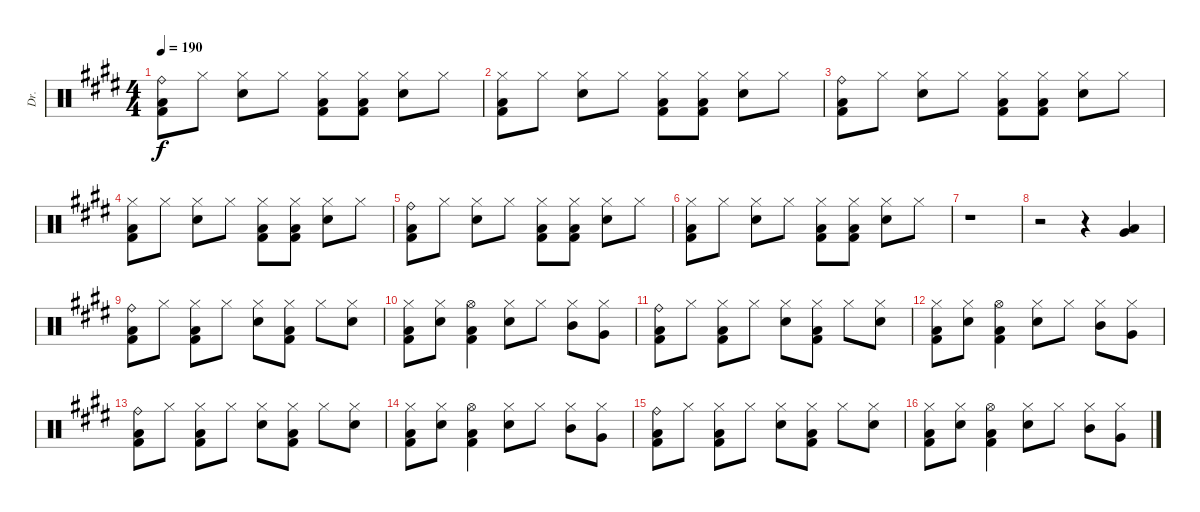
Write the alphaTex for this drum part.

\track ("Dr." "Dr.") {instrument percussion}
\staff {score}
\articulation defaults
\ts (4 4)
\tempo 190
\clef neutral
\ks e
("Ride (bell)" "Low Floor Tom (hit)" "Kick (hit) 2").8{dy f} "Hi-Hat (closed)".8 ("Electric Snare (hit)" "Hi-Hat (closed)").8 "Hi-Hat (closed)".8 ("Hi-Hat (closed)" "Low Floor Tom (hit)" "Kick (hit) 2").8 ("Hi-Hat (closed)" "Low Floor Tom (hit)" "Kick (hit) 2").8 ("Electric Snare (hit)" "Hi-Hat (closed)").8 "Hi-Hat (closed)".8 |
("Hi-Hat (closed)" "Low Floor Tom (hit)" "Kick (hit) 2").8 "Hi-Hat (closed)".8 ("Electric Snare (hit)" "Hi-Hat (closed)").8 "Hi-Hat (closed)".8 ("Hi-Hat (closed)" "Low Floor Tom (hit)" "Kick (hit) 2").8 ("Hi-Hat (closed)" "Low Floor Tom (hit)" "Kick (hit) 2").8 ("Electric Snare (hit)" "Hi-Hat (closed)").8 "Hi-Hat (closed)".8 |
("Ride (bell)" "Low Floor Tom (hit)" "Kick (hit) 2").8 "Hi-Hat (closed)".8 ("Electric Snare (hit)" "Hi-Hat (closed)").8 "Hi-Hat (closed)".8 ("Hi-Hat (closed)" "Low Floor Tom (hit)" "Kick (hit) 2").8 ("Hi-Hat (closed)" "Low Floor Tom (hit)" "Kick (hit) 2").8 ("Electric Snare (hit)" "Hi-Hat (closed)").8 "Hi-Hat (closed)".8 |
("Hi-Hat (closed)" "Low Floor Tom (hit)" "Kick (hit) 2").8 "Hi-Hat (closed)".8 ("Electric Snare (hit)" "Hi-Hat (closed)").8 "Hi-Hat (closed)".8 ("Hi-Hat (closed)" "Low Floor Tom (hit)" "Kick (hit) 2").8 ("Hi-Hat (closed)" "Low Floor Tom (hit)" "Kick (hit) 2").8 ("Electric Snare (hit)" "Hi-Hat (closed)").8 "Hi-Hat (closed)".8 |
("Ride (bell)" "Low Floor Tom (hit)" "Kick (hit) 2").8 "Hi-Hat (closed)".8 ("Electric Snare (hit)" "Hi-Hat (closed)").8 "Hi-Hat (closed)".8 ("Hi-Hat (closed)" "Low Floor Tom (hit)" "Kick (hit) 2").8 ("Hi-Hat (closed)" "Low Floor Tom (hit)" "Kick (hit) 2").8 ("Electric Snare (hit)" "Hi-Hat (closed)").8 "Hi-Hat (closed)".8 |
("Hi-Hat (closed)" "Low Floor Tom (hit)" "Kick (hit) 2").8 "Hi-Hat (closed)".8 ("Electric Snare (hit)" "Hi-Hat (closed)").8 "Hi-Hat (closed)".8 ("Hi-Hat (closed)" "Low Floor Tom (hit)" "Kick (hit) 2").8 ("Hi-Hat (closed)" "Low Floor Tom (hit)" "Kick (hit) 2").8 ("Electric Snare (hit)" "Hi-Hat (closed)").8 "Hi-Hat (closed)".8 |
r.1 |
r.2 r.4 ("Very Low Tom (hit)" "Low Floor Tom (hit)").4 |
("Ride (bell)" "Low Floor Tom (hit)" "Kick (hit) 2").8 "Hi-Hat (closed)".8 ("Hi-Hat (closed)" "Low Floor Tom (hit)" "Kick (hit) 2").8 "Hi-Hat (closed)".8 ("Electric Snare (hit)" "Hi-Hat (closed)").8 ("Hi-Hat (closed)" "Low Floor Tom (hit)" "Kick (hit) 2").8 "Hi-Hat (closed)".8 ("Electric Snare (hit)" "Hi-Hat (closed)").8 |
("Hi-Hat (closed)" "Low Floor Tom (hit)" "Kick (hit) 2").8 ("Electric Snare (hit)" "Hi-Hat (closed)").8 ("Hi-Hat (open)" "Low Floor Tom (hit)" "Kick (hit) 2").4 ("Electric Snare (hit)" "Hi-Hat (closed)").8 "Hi-Hat (closed)".8 ("Mid Tom (hit)" "Hi-Hat (closed)").8 ("Very Low Tom (hit)" "Hi-Hat (closed)").8 |
("Ride (bell)" "Low Floor Tom (hit)" "Kick (hit) 2").8 "Hi-Hat (closed)".8 ("Hi-Hat (closed)" "Low Floor Tom (hit)" "Kick (hit) 2").8 "Hi-Hat (closed)".8 ("Electric Snare (hit)" "Hi-Hat (closed)").8 ("Hi-Hat (closed)" "Low Floor Tom (hit)" "Kick (hit) 2").8 "Hi-Hat (closed)".8 ("Electric Snare (hit)" "Hi-Hat (closed)").8 |
("Hi-Hat (closed)" "Low Floor Tom (hit)" "Kick (hit) 2").8 ("Electric Snare (hit)" "Hi-Hat (closed)").8 ("Hi-Hat (open)" "Low Floor Tom (hit)" "Kick (hit) 2").4 ("Electric Snare (hit)" "Hi-Hat (closed)").8 "Hi-Hat (closed)".8 ("Mid Tom (hit)" "Hi-Hat (closed)").8 ("Very Low Tom (hit)" "Hi-Hat (closed)").8 |
("Ride (bell)" "Low Floor Tom (hit)" "Kick (hit) 2").8 "Hi-Hat (closed)".8 ("Hi-Hat (closed)" "Low Floor Tom (hit)" "Kick (hit) 2").8 "Hi-Hat (closed)".8 ("Electric Snare (hit)" "Hi-Hat (closed)").8 ("Hi-Hat (closed)" "Low Floor Tom (hit)" "Kick (hit) 2").8 "Hi-Hat (closed)".8 ("Electric Snare (hit)" "Hi-Hat (closed)").8 |
("Hi-Hat (closed)" "Low Floor Tom (hit)" "Kick (hit) 2").8 ("Electric Snare (hit)" "Hi-Hat (closed)").8 ("Hi-Hat (open)" "Low Floor Tom (hit)" "Kick (hit) 2").4 ("Electric Snare (hit)" "Hi-Hat (closed)").8 "Hi-Hat (closed)".8 ("Mid Tom (hit)" "Hi-Hat (closed)").8 ("Very Low Tom (hit)" "Hi-Hat (closed)").8 |
("Ride (bell)" "Low Floor Tom (hit)" "Kick (hit) 2").8 "Hi-Hat (closed)".8 ("Hi-Hat (closed)" "Low Floor Tom (hit)" "Kick (hit) 2").8 "Hi-Hat (closed)".8 ("Electric Snare (hit)" "Hi-Hat (closed)").8 ("Hi-Hat (closed)" "Low Floor Tom (hit)" "Kick (hit) 2").8 "Hi-Hat (closed)".8 ("Electric Snare (hit)" "Hi-Hat (closed)").8 |
("Hi-Hat (closed)" "Low Floor Tom (hit)" "Kick (hit) 2").8 ("Electric Snare (hit)" "Hi-Hat (closed)").8 ("Hi-Hat (open)" "Low Floor Tom (hit)" "Kick (hit) 2").4 ("Electric Snare (hit)" "Hi-Hat (closed)").8 "Hi-Hat (closed)".8 ("Mid Tom (hit)" "Hi-Hat (closed)").8 ("Very Low Tom (hit)" "Hi-Hat (closed)").8
